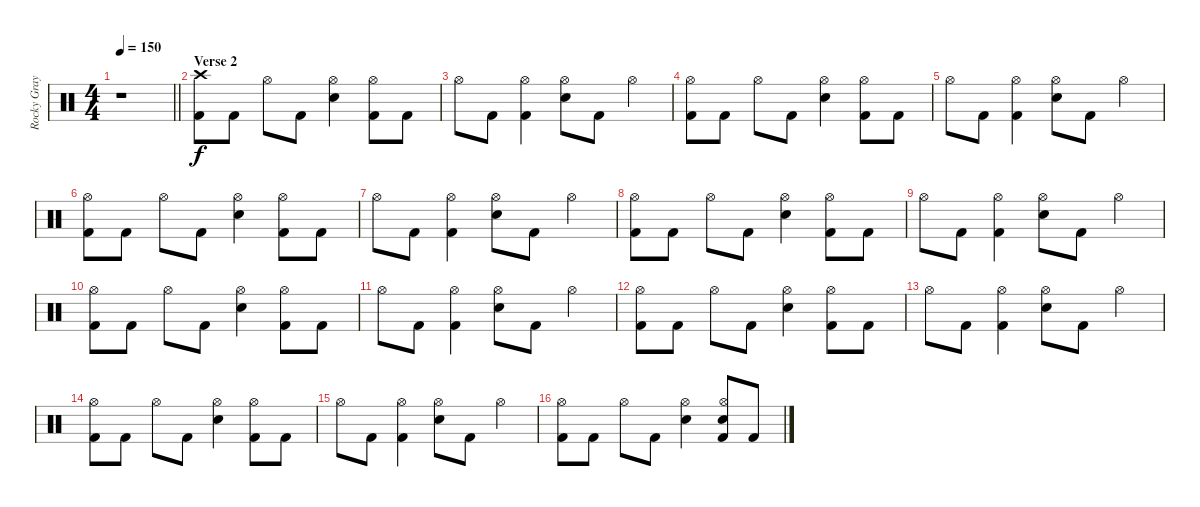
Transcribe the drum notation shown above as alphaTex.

\track ("Rocky Gray" "Rocky Gray") {instrument percussion}
\staff {score}
\articulation defaults
\ts (4 4)
\tempo 150
\clef neutral
\barLineRight lightlight
\ks c
r.1{dy f} |
\section ("" "Verse 2")
("Crash high (hit)" "Kick (hit) 2").8 "Kick (hit) 2".8 "Hi-Hat (open)".8 "Kick (hit) 2".8 ("Hi-Hat (open)" "Snare (hit) 2").4 ("Hi-Hat (open)" "Kick (hit) 2").8 "Kick (hit) 2".8 |
"Hi-Hat (open)".8 "Kick (hit) 2".8 ("Hi-Hat (open)" "Kick (hit) 2").4 ("Hi-Hat (open)" "Snare (hit) 2").8 "Kick (hit) 2".8 "Hi-Hat (open)".4 |
("Hi-Hat (open)" "Kick (hit) 2").8 "Kick (hit) 2".8 "Hi-Hat (open)".8 "Kick (hit) 2".8 ("Hi-Hat (open)" "Snare (hit) 2").4 ("Hi-Hat (open)" "Kick (hit) 2").8 "Kick (hit) 2".8 |
"Hi-Hat (open)".8 "Kick (hit) 2".8 ("Hi-Hat (open)" "Kick (hit) 2").4 ("Hi-Hat (open)" "Snare (hit) 2").8 "Kick (hit) 2".8 "Hi-Hat (open)".4 |
("Hi-Hat (open)" "Kick (hit) 2").8 "Kick (hit) 2".8 "Hi-Hat (open)".8 "Kick (hit) 2".8 ("Hi-Hat (open)" "Snare (hit) 2").4 ("Hi-Hat (open)" "Kick (hit) 2").8 "Kick (hit) 2".8 |
"Hi-Hat (open)".8 "Kick (hit) 2".8 ("Hi-Hat (open)" "Kick (hit) 2").4 ("Hi-Hat (open)" "Snare (hit) 2").8 "Kick (hit) 2".8 "Hi-Hat (open)".4 |
("Hi-Hat (open)" "Kick (hit) 2").8 "Kick (hit) 2".8 "Hi-Hat (open)".8 "Kick (hit) 2".8 ("Hi-Hat (open)" "Snare (hit) 2").4 ("Hi-Hat (open)" "Kick (hit) 2").8 "Kick (hit) 2".8 |
"Hi-Hat (open)".8 "Kick (hit) 2".8 ("Hi-Hat (open)" "Kick (hit) 2").4 ("Hi-Hat (open)" "Snare (hit) 2").8 "Kick (hit) 2".8 "Hi-Hat (open)".4 |
("Hi-Hat (open)" "Kick (hit) 2").8 "Kick (hit) 2".8 "Hi-Hat (open)".8 "Kick (hit) 2".8 ("Hi-Hat (open)" "Snare (hit) 2").4 ("Hi-Hat (open)" "Kick (hit) 2").8 "Kick (hit) 2".8 |
"Hi-Hat (open)".8 "Kick (hit) 2".8 ("Hi-Hat (open)" "Kick (hit) 2").4 ("Hi-Hat (open)" "Snare (hit) 2").8 "Kick (hit) 2".8 "Hi-Hat (open)".4 |
("Hi-Hat (open)" "Kick (hit) 2").8 "Kick (hit) 2".8 "Hi-Hat (open)".8 "Kick (hit) 2".8 ("Hi-Hat (open)" "Snare (hit) 2").4 ("Hi-Hat (open)" "Kick (hit) 2").8 "Kick (hit) 2".8 |
"Hi-Hat (open)".8 "Kick (hit) 2".8 ("Hi-Hat (open)" "Kick (hit) 2").4 ("Hi-Hat (open)" "Snare (hit) 2").8 "Kick (hit) 2".8 "Hi-Hat (open)".4 |
("Hi-Hat (open)" "Kick (hit) 2").8 "Kick (hit) 2".8 "Hi-Hat (open)".8 "Kick (hit) 2".8 ("Hi-Hat (open)" "Snare (hit) 2").4 ("Hi-Hat (open)" "Kick (hit) 2").8 "Kick (hit) 2".8 |
"Hi-Hat (open)".8 "Kick (hit) 2".8 ("Hi-Hat (open)" "Kick (hit) 2").4 ("Hi-Hat (open)" "Snare (hit) 2").8 "Kick (hit) 2".8 "Hi-Hat (open)".4 |
("Hi-Hat (open)" "Kick (hit) 2").8 "Kick (hit) 2".8 "Hi-Hat (open)".8 "Kick (hit) 2".8 ("Hi-Hat (open)" "Snare (hit) 2").4 ("Hi-Hat (open)" "Snare (hit) 2" "Kick (hit) 2").8 "Kick (hit) 2".8
